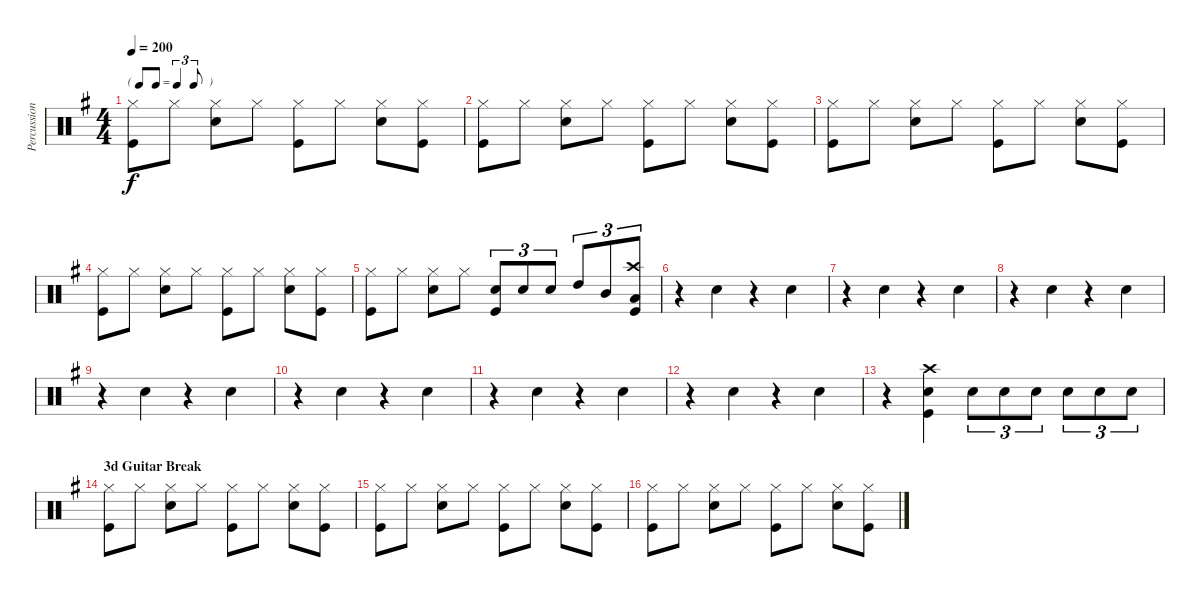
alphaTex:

\track ("Percussion" "Percussion") {instrument percussion}
\staff {score}
\articulation defaults
\ts (4 4)
\tf triplet8th
\tempo 200
\clef neutral
\ks g
("Hi-Hat (closed)" "Kick (hit)").8{dy f} "Hi-Hat (closed)".8 ("Hi-Hat (closed)" "Snare (hit) 2").8 "Hi-Hat (closed)".8 ("Hi-Hat (closed)" "Kick (hit)").8 "Hi-Hat (closed)".8 ("Hi-Hat (closed)" "Snare (hit) 2").8 ("Hi-Hat (closed)" "Kick (hit)").8 |
("Hi-Hat (closed)" "Kick (hit)").8 "Hi-Hat (closed)".8 ("Hi-Hat (closed)" "Snare (hit) 2").8 "Hi-Hat (closed)".8 ("Hi-Hat (closed)" "Kick (hit)").8 "Hi-Hat (closed)".8 ("Hi-Hat (closed)" "Snare (hit) 2").8 ("Hi-Hat (closed)" "Kick (hit)").8 |
("Hi-Hat (closed)" "Kick (hit)").8 "Hi-Hat (closed)".8 ("Hi-Hat (closed)" "Snare (hit) 2").8 "Hi-Hat (closed)".8 ("Hi-Hat (closed)" "Kick (hit)").8 "Hi-Hat (closed)".8 ("Hi-Hat (closed)" "Snare (hit) 2").8 ("Hi-Hat (closed)" "Kick (hit)").8 |
("Hi-Hat (closed)" "Kick (hit)").8 "Hi-Hat (closed)".8 ("Hi-Hat (closed)" "Snare (hit) 2").8 "Hi-Hat (closed)".8 ("Hi-Hat (closed)" "Kick (hit)").8 "Hi-Hat (closed)".8 ("Hi-Hat (closed)" "Snare (hit) 2").8 ("Hi-Hat (closed)" "Kick (hit)").8 |
("Hi-Hat (closed)" "Kick (hit)").8 "Hi-Hat (closed)".8 ("Hi-Hat (closed)" "Snare (hit) 2").8 "Hi-Hat (closed)".8 ("Snare (hit) 2" "Kick (hit)").8{tu (3 2)} "Snare (hit) 2".8{tu (3 2)} "Snare (hit) 2".8{tu (3 2)} "High Tom (hit)".8{tu (3 2)} "Mid Tom (hit)".8{tu (3 2)} ("Crash high (hit)" "Low Tom (hit)" "Kick (hit)").8{tu (3 2)} |
r.4 "Hand Clap (hit)".4 r.4 "Hand Clap (hit)".4 |
r.4 "Hand Clap (hit)".4 r.4 "Hand Clap (hit)".4 |
r.4 "Hand Clap (hit)".4 r.4 "Hand Clap (hit)".4 |
r.4 "Hand Clap (hit)".4 r.4 "Hand Clap (hit)".4 |
r.4 "Hand Clap (hit)".4 r.4 "Hand Clap (hit)".4 |
r.4 "Hand Clap (hit)".4 r.4 "Hand Clap (hit)".4 |
r.4 "Hand Clap (hit)".4 r.4 "Hand Clap (hit)".4 |
r.4 ("Crash high (hit)" "Snare (hit) 2" "Kick (hit)").4 "Snare (hit) 2".8{tu (3 2)} "Snare (hit) 2".8{tu (3 2)} "Snare (hit) 2".8{tu (3 2)} "Snare (hit) 2".8{tu (3 2)} "Snare (hit) 2".8{tu (3 2)} "Snare (hit) 2".8{tu (3 2)} |
\section ("" "3d Guitar Break")
("Hi-Hat (closed)" "Kick (hit)").8 "Hi-Hat (closed)".8 ("Hi-Hat (closed)" "Snare (hit) 2").8 "Hi-Hat (closed)".8 ("Hi-Hat (closed)" "Kick (hit)").8 "Hi-Hat (closed)".8 ("Hi-Hat (closed)" "Snare (hit) 2").8 ("Hi-Hat (closed)" "Kick (hit)").8 |
("Hi-Hat (closed)" "Kick (hit)").8 "Hi-Hat (closed)".8 ("Hi-Hat (closed)" "Snare (hit) 2").8 "Hi-Hat (closed)".8 ("Hi-Hat (closed)" "Kick (hit)").8 "Hi-Hat (closed)".8 ("Hi-Hat (closed)" "Snare (hit) 2").8 ("Hi-Hat (closed)" "Kick (hit)").8 |
("Hi-Hat (closed)" "Kick (hit)").8 "Hi-Hat (closed)".8 ("Hi-Hat (closed)" "Snare (hit) 2").8 "Hi-Hat (closed)".8 ("Hi-Hat (closed)" "Kick (hit)").8 "Hi-Hat (closed)".8 ("Hi-Hat (closed)" "Snare (hit) 2").8 ("Hi-Hat (closed)" "Kick (hit)").8
